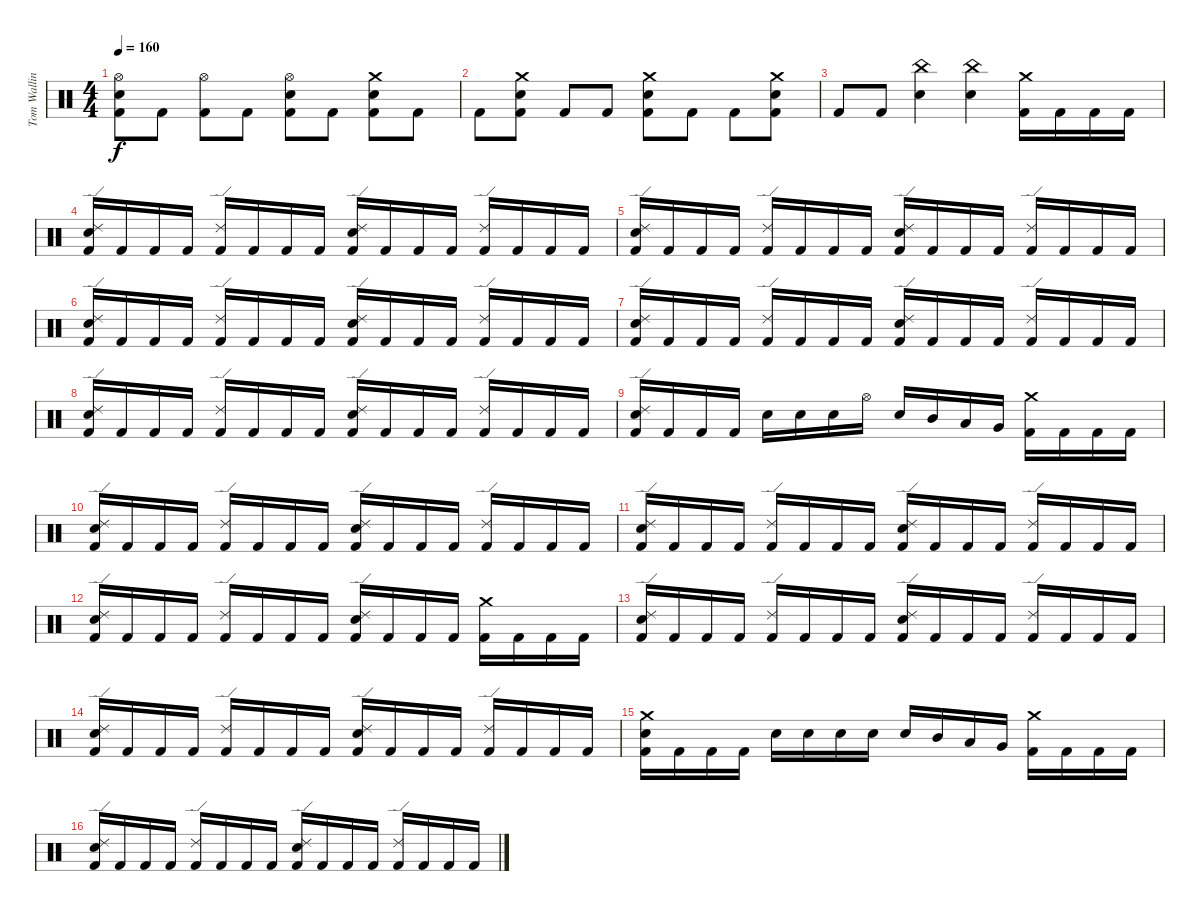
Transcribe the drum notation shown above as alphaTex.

\track ("Tom Walling (Drums)" "Tom Wallin") {instrument percussion}
\staff {score}
\articulation defaults
\ts (4 4)
\tempo 160
\clef neutral
\ks c
("Hi-Hat (open)" "Electric Snare (hit)" "Kick (hit) 2").8{dy f} "Kick (hit) 2".8 ("Hi-Hat (open)" "Kick (hit) 2").8 "Kick (hit) 2".8 ("Hi-Hat (open)" "Electric Snare (hit)" "Kick (hit) 2").8 "Kick (hit) 2".8 ("Crash medium (hit)" "Electric Snare (hit)" "Kick (hit) 2").8 "Kick (hit) 2".8 |
"Kick (hit) 2".8 ("Crash medium (hit)" "Electric Snare (hit)" "Kick (hit) 2").8 "Kick (hit) 2".8 "Kick (hit) 2".8 ("Crash medium (hit)" "Kick (hit) 2" "Electric Snare (hit)").8 "Kick (hit) 2".8 "Kick (hit) 2".8 ("Kick (hit) 2" "Crash medium (hit)" "Electric Snare (hit)").8 |
"Kick (hit) 2".8 "Kick (hit) 2".8 ("China (hit)" "Electric Snare (hit)").4 ("China (hit)" "Electric Snare (hit)").4 ("Kick (hit) 2" "Crash medium (hit)").16 "Kick (hit) 2".16 "Kick (hit) 2".16 "Kick (hit) 2".16 |
("Electric Snare (hit)" "Kick (hit) 2" "Ride (edge) 2").16 "Kick (hit) 2".16 "Kick (hit) 2".16 "Kick (hit) 2".16 ("Kick (hit) 2" "Ride (edge) 2").16 "Kick (hit) 2".16 "Kick (hit) 2".16 "Kick (hit) 2".16 ("Electric Snare (hit)" "Kick (hit) 2" "Ride (edge) 2").16 "Kick (hit) 2".16 "Kick (hit) 2".16 "Kick (hit) 2".16 ("Kick (hit) 2" "Ride (edge) 2").16 "Kick (hit) 2".16 "Kick (hit) 2".16 "Kick (hit) 2".16 |
("Electric Snare (hit)" "Kick (hit) 2" "Ride (edge) 2").16 "Kick (hit) 2".16 "Kick (hit) 2".16 "Kick (hit) 2".16 ("Ride (edge) 2" "Kick (hit) 2").16 "Kick (hit) 2".16 "Kick (hit) 2".16 "Kick (hit) 2".16 ("Electric Snare (hit)" "Kick (hit) 2" "Ride (edge) 2").16 "Kick (hit) 2".16 "Kick (hit) 2".16 "Kick (hit) 2".16 ("Kick (hit) 2" "Ride (edge) 2").16 "Kick (hit) 2".16 "Kick (hit) 2".16 "Kick (hit) 2".16 |
("Electric Snare (hit)" "Kick (hit) 2" "Ride (edge) 2").16 "Kick (hit) 2".16 "Kick (hit) 2".16 "Kick (hit) 2".16 ("Kick (hit) 2" "Ride (edge) 2").16 "Kick (hit) 2".16 "Kick (hit) 2".16 "Kick (hit) 2".16 ("Electric Snare (hit)" "Kick (hit) 2" "Ride (edge) 2").16 "Kick (hit) 2".16 "Kick (hit) 2".16 "Kick (hit) 2".16 ("Ride (edge) 2" "Kick (hit) 2").16 "Kick (hit) 2".16 "Kick (hit) 2".16 "Kick (hit) 2".16 |
("Electric Snare (hit)" "Kick (hit) 2" "Ride (edge) 2").16 "Kick (hit) 2".16 "Kick (hit) 2".16 "Kick (hit) 2".16 ("Kick (hit) 2" "Ride (edge) 2").16 "Kick (hit) 2".16 "Kick (hit) 2".16 "Kick (hit) 2".16 ("Electric Snare (hit)" "Kick (hit) 2" "Ride (edge) 2").16 "Kick (hit) 2".16 "Kick (hit) 2".16 "Kick (hit) 2".16 ("Kick (hit) 2" "Ride (edge) 2").16 "Kick (hit) 2".16 "Kick (hit) 2".16 "Kick (hit) 2".16 |
("Electric Snare (hit)" "Kick (hit) 2" "Ride (edge) 2").16 "Kick (hit) 2".16 "Kick (hit) 2".16 "Kick (hit) 2".16 ("Ride (edge) 2" "Kick (hit) 2").16 "Kick (hit) 2".16 "Kick (hit) 2".16 "Kick (hit) 2".16 ("Electric Snare (hit)" "Kick (hit) 2" "Ride (edge) 2").16 "Kick (hit) 2".16 "Kick (hit) 2".16 "Kick (hit) 2".16 ("Kick (hit) 2" "Ride (edge) 2").16 "Kick (hit) 2".16 "Kick (hit) 2".16 "Kick (hit) 2".16 |
("Electric Snare (hit)" "Kick (hit) 2" "Ride (edge) 2").16 "Kick (hit) 2".16 "Kick (hit) 2".16 "Kick (hit) 2".16 "Electric Snare (hit)".16 "Electric Snare (hit)".16 "Electric Snare (hit)".16 "Hi-Hat (open)".16 "Electric Snare (hit)".16 "Mid Tom (hit)".16 "Low Tom (hit)".16 "Very Low Tom (hit)".16 ("Kick (hit) 2" "Crash medium (hit)").16 "Kick (hit) 2".16 "Kick (hit) 2".16 "Kick (hit) 2".16 |
("Electric Snare (hit)" "Kick (hit) 2" "Ride (edge) 2").16 "Kick (hit) 2".16 "Kick (hit) 2".16 "Kick (hit) 2".16 ("Kick (hit) 2" "Ride (edge) 2").16 "Kick (hit) 2".16 "Kick (hit) 2".16 "Kick (hit) 2".16 ("Electric Snare (hit)" "Kick (hit) 2" "Ride (edge) 2").16 "Kick (hit) 2".16 "Kick (hit) 2".16 "Kick (hit) 2".16 ("Kick (hit) 2" "Ride (edge) 2").16 "Kick (hit) 2".16 "Kick (hit) 2".16 "Kick (hit) 2".16 |
("Electric Snare (hit)" "Kick (hit) 2" "Ride (edge) 2").16 "Kick (hit) 2".16 "Kick (hit) 2".16 "Kick (hit) 2".16 ("Ride (edge) 2" "Kick (hit) 2").16 "Kick (hit) 2".16 "Kick (hit) 2".16 "Kick (hit) 2".16 ("Electric Snare (hit)" "Kick (hit) 2" "Ride (edge) 2").16 "Kick (hit) 2".16 "Kick (hit) 2".16 "Kick (hit) 2".16 ("Kick (hit) 2" "Ride (edge) 2").16 "Kick (hit) 2".16 "Kick (hit) 2".16 "Kick (hit) 2".16 |
("Electric Snare (hit)" "Kick (hit) 2" "Ride (edge) 2").16 "Kick (hit) 2".16 "Kick (hit) 2".16 "Kick (hit) 2".16 ("Kick (hit) 2" "Ride (edge) 2").16 "Kick (hit) 2".16 "Kick (hit) 2".16 "Kick (hit) 2".16 ("Electric Snare (hit)" "Kick (hit) 2" "Ride (edge) 2").16 "Kick (hit) 2".16 "Kick (hit) 2".16 "Kick (hit) 2".16 ("Kick (hit) 2" "Crash medium (hit)").16 "Kick (hit) 2".16 "Kick (hit) 2".16 "Kick (hit) 2".16 |
("Electric Snare (hit)" "Kick (hit) 2" "Ride (edge) 2").16 "Kick (hit) 2".16 "Kick (hit) 2".16 "Kick (hit) 2".16 ("Kick (hit) 2" "Ride (edge) 2").16 "Kick (hit) 2".16 "Kick (hit) 2".16 "Kick (hit) 2".16 ("Electric Snare (hit)" "Kick (hit) 2" "Ride (edge) 2").16 "Kick (hit) 2".16 "Kick (hit) 2".16 "Kick (hit) 2".16 ("Kick (hit) 2" "Ride (edge) 2").16 "Kick (hit) 2".16 "Kick (hit) 2".16 "Kick (hit) 2".16 |
("Electric Snare (hit)" "Kick (hit) 2" "Ride (edge) 2").16 "Kick (hit) 2".16 "Kick (hit) 2".16 "Kick (hit) 2".16 ("Ride (edge) 2" "Kick (hit) 2").16 "Kick (hit) 2".16 "Kick (hit) 2".16 "Kick (hit) 2".16 ("Electric Snare (hit)" "Kick (hit) 2" "Ride (edge) 2").16 "Kick (hit) 2".16 "Kick (hit) 2".16 "Kick (hit) 2".16 ("Kick (hit) 2" "Ride (edge) 2").16 "Kick (hit) 2".16 "Kick (hit) 2".16 "Kick (hit) 2".16 |
("Crash medium (hit)" "Electric Snare (hit)" "Kick (hit) 2").16 "Kick (hit) 2".16 "Kick (hit) 2".16 "Kick (hit) 2".16 "Electric Snare (hit)".16 "Electric Snare (hit)".16 "Electric Snare (hit)".16 "Electric Snare (hit)".16 "Electric Snare (hit)".16 "Mid Tom (hit)".16 "Low Tom (hit)".16 "Very Low Tom (hit)".16 ("Kick (hit) 2" "Crash medium (hit)").16 "Kick (hit) 2".16 "Kick (hit) 2".16 "Kick (hit) 2".16 |
("Electric Snare (hit)" "Kick (hit) 2" "Ride (edge) 2").16 "Kick (hit) 2".16 "Kick (hit) 2".16 "Kick (hit) 2".16 ("Kick (hit) 2" "Ride (edge) 2").16 "Kick (hit) 2".16 "Kick (hit) 2".16 "Kick (hit) 2".16 ("Electric Snare (hit)" "Kick (hit) 2" "Ride (edge) 2").16 "Kick (hit) 2".16 "Kick (hit) 2".16 "Kick (hit) 2".16 ("Kick (hit) 2" "Ride (edge) 2").16 "Kick (hit) 2".16 "Kick (hit) 2".16 "Kick (hit) 2".16
